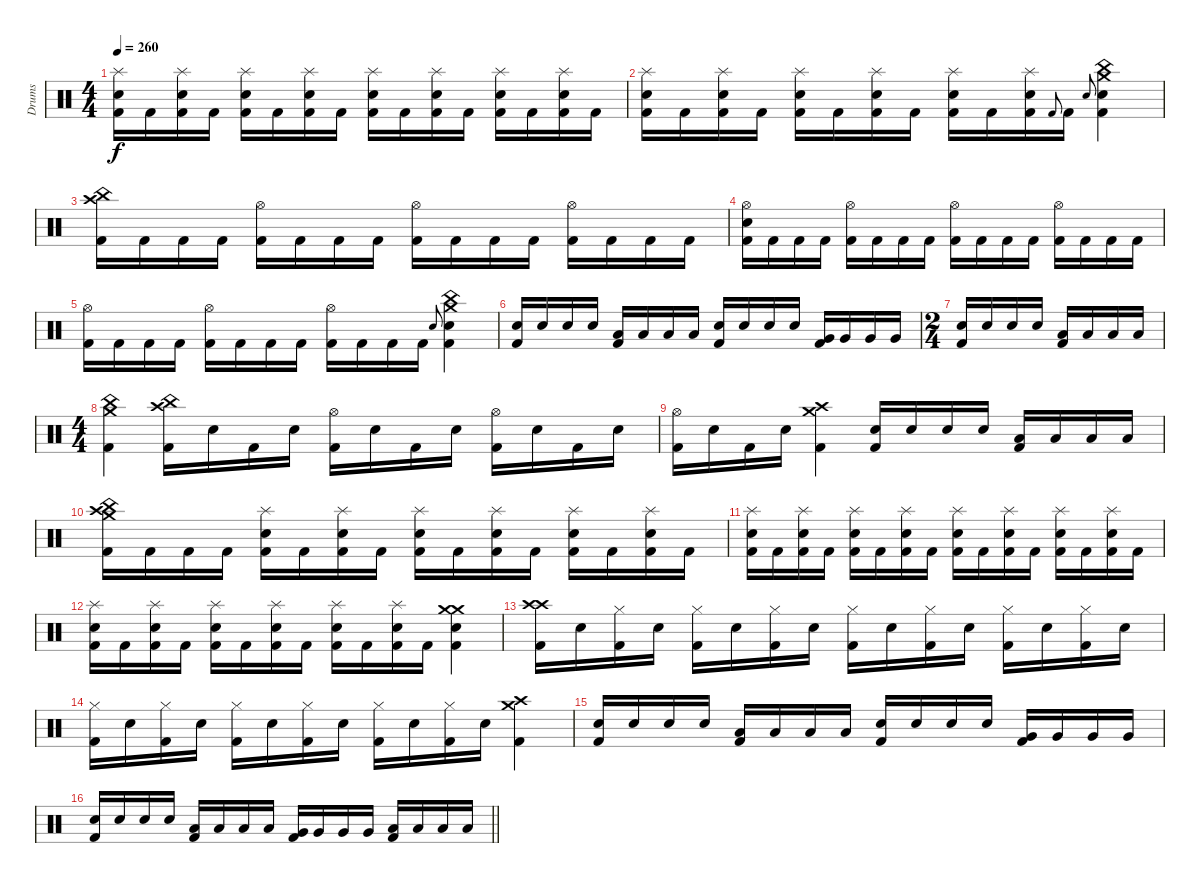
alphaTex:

\track ("Drums" "Drums") {instrument percussion}
\staff {score}
\articulation defaults
\ts (4 4)
\tempo 260
\clef neutral
\ks c
("Splash (hit)" "Electric Snare (hit)" "Kick (hit) 2").16{dy f} "Kick (hit) 2".16 ("Splash (hit)" "Electric Snare (hit)" "Kick (hit) 2").16 "Kick (hit) 2".16 ("Splash (hit)" "Electric Snare (hit)" "Kick (hit) 2").16 "Kick (hit) 2".16 ("Splash (hit)" "Electric Snare (hit)" "Kick (hit) 2").16 "Kick (hit) 2".16 ("Splash (hit)" "Electric Snare (hit)" "Kick (hit) 2").16 "Kick (hit) 2".16 ("Splash (hit)" "Electric Snare (hit)" "Kick (hit) 2").16 "Kick (hit) 2".16 ("Splash (hit)" "Electric Snare (hit)" "Kick (hit) 2").16 "Kick (hit) 2".16 ("Splash (hit)" "Electric Snare (hit)" "Kick (hit) 2").16 "Kick (hit) 2".16 |
("Splash (hit)" "Electric Snare (hit)" "Kick (hit) 2").16 "Kick (hit) 2".16 ("Splash (hit)" "Electric Snare (hit)" "Kick (hit) 2").16 "Kick (hit) 2".16 ("Splash (hit)" "Electric Snare (hit)" "Kick (hit) 2").16 "Kick (hit) 2".16 ("Splash (hit)" "Electric Snare (hit)" "Kick (hit) 2").16 "Kick (hit) 2".16 ("Splash (hit)" "Electric Snare (hit)" "Kick (hit) 2").16 "Kick (hit) 2".16 ("Splash (hit)" "Electric Snare (hit)" "Kick (hit) 2").16 "Kick (hit) 2".8{gr onbeat} "Kick (hit) 2".16 "Electric Snare (hit)".8{gr onbeat} ("Crash medium (hit)" "China (hit)" "Electric Snare (hit)" "Kick (hit) 2").4 |
("Crash high (hit)" "China (hit)" "Kick (hit) 2").16 "Kick (hit) 2".16 "Kick (hit) 2".16 "Kick (hit) 2".16 ("Hi-Hat (open)" "Kick (hit) 2").16 "Kick (hit) 2".16 "Kick (hit) 2".16 "Kick (hit) 2".16 ("Hi-Hat (open)" "Kick (hit) 2").16 "Kick (hit) 2".16 "Kick (hit) 2".16 "Kick (hit) 2".16 ("Hi-Hat (open)" "Kick (hit) 2").16 "Kick (hit) 2".16 "Kick (hit) 2".16 "Kick (hit) 2".16 |
("Hi-Hat (open)" "Electric Snare (hit)" "Kick (hit) 2").16 "Kick (hit) 2".16 "Kick (hit) 2".16 "Kick (hit) 2".16 ("Hi-Hat (open)" "Kick (hit) 2").16 "Kick (hit) 2".16 "Kick (hit) 2".16 "Kick (hit) 2".16 ("Hi-Hat (open)" "Kick (hit) 2").16 "Kick (hit) 2".16 "Kick (hit) 2".16 "Kick (hit) 2".16 ("Hi-Hat (open)" "Kick (hit) 2").16 "Kick (hit) 2".16 "Kick (hit) 2".16 "Kick (hit) 2".16 |
("Hi-Hat (open)" "Kick (hit) 2").16 "Kick (hit) 2".16 "Kick (hit) 2".16 "Kick (hit) 2".16 ("Hi-Hat (open)" "Kick (hit) 2").16 "Kick (hit) 2".16 "Kick (hit) 2".16 "Kick (hit) 2".16 ("Hi-Hat (open)" "Kick (hit) 2").16 "Kick (hit) 2".16 "Kick (hit) 2".16 "Kick (hit) 2".16 "Electric Snare (hit)".8{gr onbeat} ("Crash medium (hit)" "China (hit)" "Electric Snare (hit)" "Kick (hit) 2").4 |
("Electric Snare (hit)" "Kick (hit) 2").16 "Electric Snare (hit)".16 "Electric Snare (hit)".16 "Electric Snare (hit)".16 ("Low Tom (hit)" "Kick (hit) 2").16 "Low Tom (hit)".16 "Low Tom (hit)".16 "Low Tom (hit)".16 ("Electric Snare (hit)" "Kick (hit) 2").16 "Electric Snare (hit)".16 "Electric Snare (hit)".16 "Electric Snare (hit)".16 ("Very Low Tom (hit)" "Kick (hit) 2").16 "Very Low Tom (hit)".16 "Very Low Tom (hit)".16 "Very Low Tom (hit)".16 |
\ts (2 4)
("Electric Snare (hit)" "Kick (hit) 2").16 "Electric Snare (hit)".16 "Electric Snare (hit)".16 "Electric Snare (hit)".16 ("Low Floor Tom (hit)" "Kick (hit) 2").16 "Low Floor Tom (hit)".16 "Low Floor Tom (hit)".16 "Low Floor Tom (hit)".16 |
\ts (4 4)
("Crash medium (hit)" "China (hit)" "Kick (hit) 2").4 ("Crash high (hit)" "China (hit)" "Kick (hit) 2").16 "Electric Snare (hit)".16 "Kick (hit) 2".16 "Electric Snare (hit)".16 ("Hi-Hat (open)" "Kick (hit) 2").16 "Electric Snare (hit)".16 "Kick (hit) 2".16 "Electric Snare (hit)".16 ("Hi-Hat (open)" "Kick (hit) 2").16 "Electric Snare (hit)".16 "Kick (hit) 2".16 "Electric Snare (hit)".16 |
("Hi-Hat (open)" "Kick (hit) 2").16 "Electric Snare (hit)".16 "Kick (hit) 2".16 "Electric Snare (hit)".16 ("Crash high (hit)" "Crash medium (hit)" "Kick (hit) 2").4 ("Electric Snare (hit)" "Kick (hit) 2").16 "Electric Snare (hit)".16 "Electric Snare (hit)".16 "Electric Snare (hit)".16 ("Low Tom (hit)" "Kick (hit) 2").16 "Low Tom (hit)".16 "Low Tom (hit)".16 "Low Tom (hit)".16 |
("Crash high (hit)" "Crash medium (hit)" "China (hit)" "Kick (hit) 2").16 "Kick (hit) 2".16 "Kick (hit) 2".16 "Kick (hit) 2".16 ("Splash (hit)" "Electric Snare (hit)" "Kick (hit) 2").16 "Kick (hit) 2".16 ("Splash (hit)" "Electric Snare (hit)" "Kick (hit) 2").16 "Kick (hit) 2".16 ("Splash (hit)" "Electric Snare (hit)" "Kick (hit) 2").16 "Kick (hit) 2".16 ("Splash (hit)" "Electric Snare (hit)" "Kick (hit) 2").16 "Kick (hit) 2".16 ("Splash (hit)" "Electric Snare (hit)" "Kick (hit) 2").16 "Kick (hit) 2".16 ("Splash (hit)" "Electric Snare (hit)" "Kick (hit) 2").16 "Kick (hit) 2".16 |
("Splash (hit)" "Electric Snare (hit)" "Kick (hit) 2").16 "Kick (hit) 2".16 ("Splash (hit)" "Electric Snare (hit)" "Kick (hit) 2").16 "Kick (hit) 2".16 ("Splash (hit)" "Electric Snare (hit)" "Kick (hit) 2").16 "Kick (hit) 2".16 ("Splash (hit)" "Electric Snare (hit)" "Kick (hit) 2").16 "Kick (hit) 2".16 ("Splash (hit)" "Electric Snare (hit)" "Kick (hit) 2").16 "Kick (hit) 2".16 ("Splash (hit)" "Electric Snare (hit)" "Kick (hit) 2").16 "Kick (hit) 2".16 ("Splash (hit)" "Electric Snare (hit)" "Kick (hit) 2").16 "Kick (hit) 2".16 ("Splash (hit)" "Electric Snare (hit)" "Kick (hit) 2").16 "Kick (hit) 2".16 |
("Splash (hit)" "Electric Snare (hit)" "Kick (hit) 2").16 "Kick (hit) 2".16 ("Splash (hit)" "Electric Snare (hit)" "Kick (hit) 2").16 "Kick (hit) 2".16 ("Splash (hit)" "Electric Snare (hit)" "Kick (hit) 2").16 "Kick (hit) 2".16 ("Splash (hit)" "Electric Snare (hit)" "Kick (hit) 2").16 "Kick (hit) 2".16 ("Splash (hit)" "Electric Snare (hit)" "Kick (hit) 2").16 "Kick (hit) 2".16 ("Splash (hit)" "Electric Snare (hit)" "Kick (hit) 2").16 "Kick (hit) 2".16 ("Crash medium (hit)" "Crash medium (hit)" "Electric Snare (hit)" "Kick (hit) 2").4 |
("Crash high (hit)" "Crash high (hit)" "Kick (hit) 2").16 "Electric Snare (hit)".16 ("Hi-Hat (closed)" "Kick (hit) 2").16 "Electric Snare (hit)".16 ("Hi-Hat (closed)" "Kick (hit) 2").16 "Electric Snare (hit)".16 ("Hi-Hat (closed)" "Kick (hit) 2").16 "Electric Snare (hit)".16 ("Hi-Hat (closed)" "Kick (hit) 2").16 "Electric Snare (hit)".16 ("Hi-Hat (closed)" "Kick (hit) 2").16 "Electric Snare (hit)".16 ("Hi-Hat (closed)" "Kick (hit) 2").16 "Electric Snare (hit)".16 ("Hi-Hat (closed)" "Kick (hit) 2").16 "Electric Snare (hit)".16 |
("Hi-Hat (closed)" "Kick (hit) 2").16 "Electric Snare (hit)".16 ("Hi-Hat (closed)" "Kick (hit) 2").16 "Electric Snare (hit)".16 ("Hi-Hat (closed)" "Kick (hit) 2").16 "Electric Snare (hit)".16 ("Hi-Hat (closed)" "Kick (hit) 2").16 "Electric Snare (hit)".16 ("Hi-Hat (closed)" "Kick (hit) 2").16 "Electric Snare (hit)".16 ("Hi-Hat (closed)" "Kick (hit) 2").16 "Electric Snare (hit)".16 ("Crash high (hit)" "Crash medium (hit)" "Kick (hit) 2").4 |
("Electric Snare (hit)" "Kick (hit) 2").16 "Electric Snare (hit)".16 "Electric Snare (hit)".16 "Electric Snare (hit)".16 ("Low Tom (hit)" "Kick (hit) 2").16 "Low Tom (hit)".16 "Low Tom (hit)".16 "Low Tom (hit)".16 ("Electric Snare (hit)" "Kick (hit) 2").16 "Electric Snare (hit)".16 "Electric Snare (hit)".16 "Electric Snare (hit)".16 ("Very Low Tom (hit)" "Kick (hit) 2").16 "Very Low Tom (hit)".16 "Very Low Tom (hit)".16 "Very Low Tom (hit)".16 |
\barLineRight lightlight
("Electric Snare (hit)" "Kick (hit) 2").16 "Electric Snare (hit)".16 "Electric Snare (hit)".16 "Electric Snare (hit)".16 ("Low Tom (hit)" "Kick (hit) 2").16 "Low Tom (hit)".16 "Low Tom (hit)".16 "Low Tom (hit)".16 ("Very Low Tom (hit)" "Kick (hit) 2").16 "Very Low Tom (hit)".16 "Very Low Tom (hit)".16 "Very Low Tom (hit)".16 ("Low Floor Tom (hit)" "Kick (hit) 2").16 "Low Floor Tom (hit)".16 "Low Floor Tom (hit)".16 "Low Floor Tom (hit)".16
